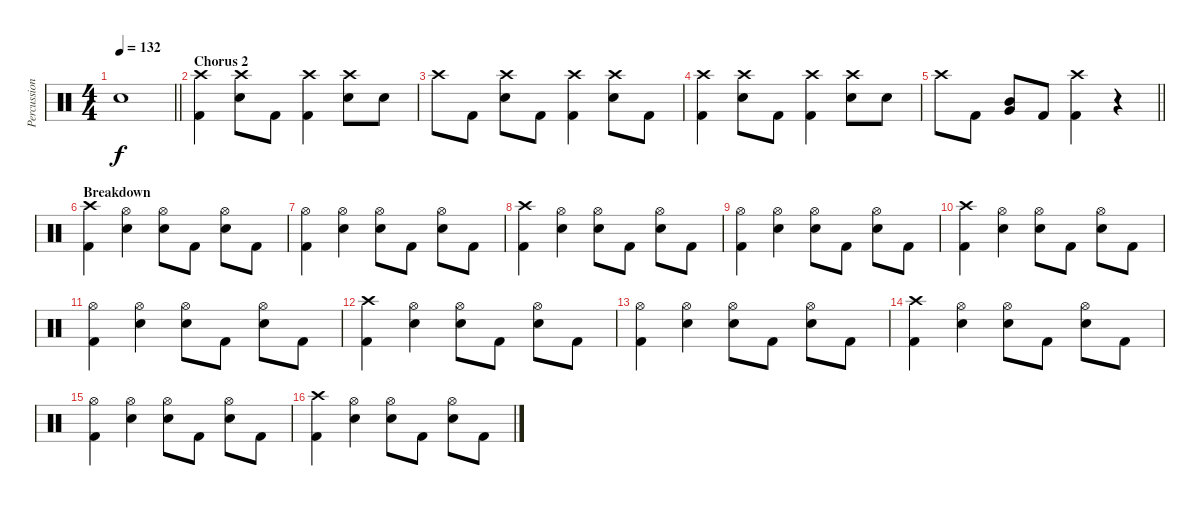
\track ("Percussion" "Percussion") {instrument percussion}
\staff {score}
\articulation defaults
\ts (4 4)
\tempo 132
\clef neutral
\barLineRight lightlight
\ks c "Snare (hit) 2".1{dy f}
|
\section ("" "Chorus 2")
("Crash high (hit)" "Kick (hit) 2").4 ("Crash high (hit)" "Snare (hit) 2").8 "Kick (hit) 2".8 ("Crash high (hit)" "Kick (hit) 2").4 ("Crash high (hit)" "Snare (hit) 2").8 "Snare (hit) 2".8 |
"Crash high (hit)".8 "Kick (hit) 2".8 ("Crash high (hit)" "Snare (hit) 2").8 "Kick (hit) 2".8 ("Crash high (hit)" "Kick (hit) 2").4 ("Crash high (hit)" "Snare (hit) 2").8 "Kick (hit) 2".8 |
("Crash high (hit)" "Kick (hit) 2").4 ("Crash high (hit)" "Snare (hit) 2").8 "Kick (hit) 2".8 ("Crash high (hit)" "Kick (hit) 2").4 ("Crash high (hit)" "Snare (hit) 2").8 "Snare (hit) 2".8 |
\barLineRight lightlight "Crash high (hit)".8 "Kick (hit) 2".8
("Very Low Tom (hit)" "Mid Tom (hit)").8 "Kick (hit) 2".8 ("Crash high (hit)" "Kick (hit) 2").4 r.4 |
\section ("" "Breakdown")
("Crash high (hit)" "Kick (hit) 2").4 ("Hi-Hat (open)" "Snare (hit) 2").4 ("Hi-Hat (open)" "Snare (hit) 2").8 "Kick (hit) 2".8 ("Hi-Hat (open)" "Snare (hit) 2").8 "Kick (hit) 2".8 |
("Hi-Hat (open)" "Kick (hit) 2").4 ("Hi-Hat (open)" "Snare (hit) 2").4 ("Hi-Hat (open)" "Snare (hit) 2").8 "Kick (hit) 2".8 ("Hi-Hat (open)" "Snare (hit) 2").8 "Kick (hit) 2".8 |
("Crash high (hit)" "Kick (hit) 2").4 ("Hi-Hat (open)" "Snare (hit) 2").4 ("Hi-Hat (open)" "Snare (hit) 2").8 "Kick (hit) 2".8 ("Hi-Hat (open)" "Snare (hit) 2").8 "Kick (hit) 2".8 |
("Hi-Hat (open)" "Kick (hit) 2").4 ("Hi-Hat (open)" "Snare (hit) 2").4 ("Hi-Hat (open)" "Snare (hit) 2").8 "Kick (hit) 2".8 ("Hi-Hat (open)" "Snare (hit) 2").8 "Kick (hit) 2".8 |
("Crash high (hit)" "Kick (hit) 2").4 ("Hi-Hat (open)" "Snare (hit) 2").4 ("Hi-Hat (open)" "Snare (hit) 2").8 "Kick (hit) 2".8 ("Hi-Hat (open)" "Snare (hit) 2").8 "Kick (hit) 2".8 |
("Hi-Hat (open)" "Kick (hit) 2").4 ("Hi-Hat (open)" "Snare (hit) 2").4 ("Hi-Hat (open)" "Snare (hit) 2").8 "Kick (hit) 2".8 ("Hi-Hat (open)" "Snare (hit) 2").8 "Kick (hit) 2".8 |
("Crash high (hit)" "Kick (hit) 2").4 ("Hi-Hat (open)" "Snare (hit) 2").4 ("Hi-Hat (open)" "Snare (hit) 2").8 "Kick (hit) 2".8 ("Hi-Hat (open)" "Snare (hit) 2").8 "Kick (hit) 2".8 |
("Hi-Hat (open)" "Kick (hit) 2").4 ("Hi-Hat (open)" "Snare (hit) 2").4 ("Hi-Hat (open)" "Snare (hit) 2").8 "Kick (hit) 2".8 ("Hi-Hat (open)" "Snare (hit) 2").8 "Kick (hit) 2".8 |
("Crash high (hit)" "Kick (hit) 2").4 ("Hi-Hat (open)" "Snare (hit) 2").4 ("Hi-Hat (open)" "Snare (hit) 2").8 "Kick (hit) 2".8 ("Hi-Hat (open)" "Snare (hit) 2").8 "Kick (hit) 2".8 |
("Hi-Hat (open)" "Kick (hit) 2").4 ("Hi-Hat (open)" "Snare (hit) 2").4 ("Hi-Hat (open)" "Snare (hit) 2").8 "Kick (hit) 2".8 ("Hi-Hat (open)" "Snare (hit) 2").8 "Kick (hit) 2".8 |
("Crash high (hit)" "Kick (hit) 2").4 ("Hi-Hat (open)" "Snare (hit) 2").4 ("Hi-Hat (open)" "Snare (hit) 2").8 "Kick (hit) 2".8 ("Hi-Hat (open)" "Snare (hit) 2").8 "Kick (hit) 2".8
